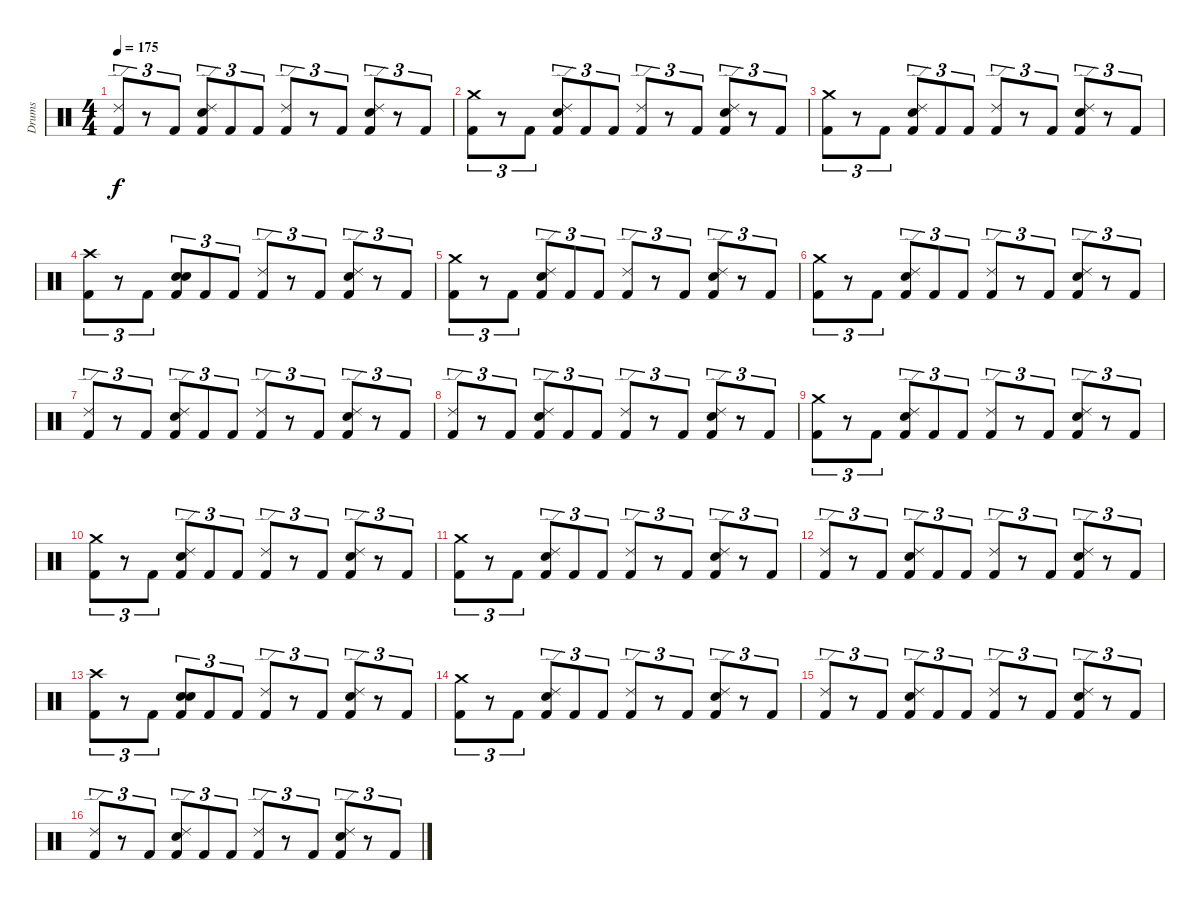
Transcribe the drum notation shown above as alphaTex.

\track ("Drums" "Drums") {instrument percussion}
\staff {score}
\articulation defaults
\ts (4 4)
\tempo 175
\clef neutral
\ks c
("Ride (edge) 2" "Kick (hit) 2").8{tu (3 2) dy f} r.8{tu (3 2)} "Kick (hit) 2".8{tu (3 2)} ("Ride (edge) 2" "Electric Snare (hit)" "Kick (hit) 2").8{tu (3 2)} "Kick (hit) 2".8{tu (3 2)} "Kick (hit) 2".8{tu (3 2)} ("Ride (edge) 2" "Kick (hit) 2").8{tu (3 2)} r.8{tu (3 2)} "Kick (hit) 2".8{tu (3 2)} ("Electric Snare (hit)" "Kick (hit) 2" "Ride (edge) 2").8{tu (3 2)} r.8{tu (3 2)} "Kick (hit) 2".8{tu (3 2)} |
("Crash medium (hit)" "Kick (hit) 2").8{tu (3 2)} r.8{tu (3 2)} "Kick (hit) 2".8{tu (3 2)} ("Ride (edge) 2" "Electric Snare (hit)" "Kick (hit) 2").8{tu (3 2)} "Kick (hit) 2".8{tu (3 2)} "Kick (hit) 2".8{tu (3 2)} ("Ride (edge) 2" "Kick (hit) 2").8{tu (3 2)} r.8{tu (3 2)} "Kick (hit) 2".8{tu (3 2)} ("Electric Snare (hit)" "Kick (hit) 2" "Ride (edge) 2").8{tu (3 2)} r.8{tu (3 2)} "Kick (hit) 2".8{tu (3 2)} |
("Crash medium (hit)" "Kick (hit) 2").8{tu (3 2)} r.8{tu (3 2)} "Kick (hit) 2".8{tu (3 2)} ("Ride (edge) 2" "Electric Snare (hit)" "Kick (hit) 2").8{tu (3 2)} "Kick (hit) 2".8{tu (3 2)} "Kick (hit) 2".8{tu (3 2)} ("Ride (edge) 2" "Kick (hit) 2").8{tu (3 2)} r.8{tu (3 2)} "Kick (hit) 2".8{tu (3 2)} ("Electric Snare (hit)" "Kick (hit) 2" "Ride (edge) 2").8{tu (3 2)} r.8{tu (3 2)} "Kick (hit) 2".8{tu (3 2)} |
("Crash high (hit)" "Kick (hit) 2").8{tu (3 2)} r.8{tu (3 2)} "Kick (hit) 2".8{tu (3 2)} ("Electric Snare (hit)" "Electric Snare (hit)" "Kick (hit) 2").8{tu (3 2)} "Kick (hit) 2".8{tu (3 2)} "Kick (hit) 2".8{tu (3 2)} ("Ride (edge) 2" "Kick (hit) 2").8{tu (3 2)} r.8{tu (3 2)} "Kick (hit) 2".8{tu (3 2)} ("Electric Snare (hit)" "Kick (hit) 2" "Ride (edge) 2").8{tu (3 2)} r.8{tu (3 2)} "Kick (hit) 2".8{tu (3 2)} |
("Crash medium (hit)" "Kick (hit) 2").8{tu (3 2)} r.8{tu (3 2)} "Kick (hit) 2".8{tu (3 2)} ("Ride (edge) 2" "Electric Snare (hit)" "Kick (hit) 2").8{tu (3 2)} "Kick (hit) 2".8{tu (3 2)} "Kick (hit) 2".8{tu (3 2)} ("Ride (edge) 2" "Kick (hit) 2").8{tu (3 2)} r.8{tu (3 2)} "Kick (hit) 2".8{tu (3 2)} ("Electric Snare (hit)" "Kick (hit) 2" "Ride (edge) 2").8{tu (3 2)} r.8{tu (3 2)} "Kick (hit) 2".8{tu (3 2)} |
("Crash medium (hit)" "Kick (hit) 2").8{tu (3 2)} r.8{tu (3 2)} "Kick (hit) 2".8{tu (3 2)} ("Ride (edge) 2" "Electric Snare (hit)" "Kick (hit) 2").8{tu (3 2)} "Kick (hit) 2".8{tu (3 2)} "Kick (hit) 2".8{tu (3 2)} ("Ride (edge) 2" "Kick (hit) 2").8{tu (3 2)} r.8{tu (3 2)} "Kick (hit) 2".8{tu (3 2)} ("Electric Snare (hit)" "Kick (hit) 2" "Ride (edge) 2").8{tu (3 2)} r.8{tu (3 2)} "Kick (hit) 2".8{tu (3 2)} |
("Ride (edge) 2" "Kick (hit) 2").8{tu (3 2)} r.8{tu (3 2)} "Kick (hit) 2".8{tu (3 2)} ("Ride (edge) 2" "Electric Snare (hit)" "Kick (hit) 2").8{tu (3 2)} "Kick (hit) 2".8{tu (3 2)} "Kick (hit) 2".8{tu (3 2)} ("Ride (edge) 2" "Kick (hit) 2").8{tu (3 2)} r.8{tu (3 2)} "Kick (hit) 2".8{tu (3 2)} ("Electric Snare (hit)" "Kick (hit) 2" "Ride (edge) 2").8{tu (3 2)} r.8{tu (3 2)} "Kick (hit) 2".8{tu (3 2)} |
("Ride (edge) 2" "Kick (hit) 2").8{tu (3 2)} r.8{tu (3 2)} "Kick (hit) 2".8{tu (3 2)} ("Ride (edge) 2" "Electric Snare (hit)" "Kick (hit) 2").8{tu (3 2)} "Kick (hit) 2".8{tu (3 2)} "Kick (hit) 2".8{tu (3 2)} ("Ride (edge) 2" "Kick (hit) 2").8{tu (3 2)} r.8{tu (3 2)} "Kick (hit) 2".8{tu (3 2)} ("Electric Snare (hit)" "Kick (hit) 2" "Ride (edge) 2").8{tu (3 2)} r.8{tu (3 2)} "Kick (hit) 2".8{tu (3 2)} |
("Crash medium (hit)" "Kick (hit) 2").8{tu (3 2)} r.8{tu (3 2)} "Kick (hit) 2".8{tu (3 2)} ("Ride (edge) 2" "Electric Snare (hit)" "Kick (hit) 2").8{tu (3 2)} "Kick (hit) 2".8{tu (3 2)} "Kick (hit) 2".8{tu (3 2)} ("Ride (edge) 2" "Kick (hit) 2").8{tu (3 2)} r.8{tu (3 2)} "Kick (hit) 2".8{tu (3 2)} ("Electric Snare (hit)" "Kick (hit) 2" "Ride (edge) 2").8{tu (3 2)} r.8{tu (3 2)} "Kick (hit) 2".8{tu (3 2)} |
("Crash medium (hit)" "Kick (hit) 2").8{tu (3 2)} r.8{tu (3 2)} "Kick (hit) 2".8{tu (3 2)} ("Ride (edge) 2" "Electric Snare (hit)" "Kick (hit) 2").8{tu (3 2)} "Kick (hit) 2".8{tu (3 2)} "Kick (hit) 2".8{tu (3 2)} ("Ride (edge) 2" "Kick (hit) 2").8{tu (3 2)} r.8{tu (3 2)} "Kick (hit) 2".8{tu (3 2)} ("Electric Snare (hit)" "Kick (hit) 2" "Ride (edge) 2").8{tu (3 2)} r.8{tu (3 2)} "Kick (hit) 2".8{tu (3 2)} |
("Crash medium (hit)" "Kick (hit) 2").8{tu (3 2)} r.8{tu (3 2)} "Kick (hit) 2".8{tu (3 2)} ("Ride (edge) 2" "Electric Snare (hit)" "Kick (hit) 2").8{tu (3 2)} "Kick (hit) 2".8{tu (3 2)} "Kick (hit) 2".8{tu (3 2)} ("Ride (edge) 2" "Kick (hit) 2").8{tu (3 2)} r.8{tu (3 2)} "Kick (hit) 2".8{tu (3 2)} ("Electric Snare (hit)" "Kick (hit) 2" "Ride (edge) 2").8{tu (3 2)} r.8{tu (3 2)} "Kick (hit) 2".8{tu (3 2)} |
("Ride (edge) 2" "Kick (hit) 2").8{tu (3 2)} r.8{tu (3 2)} "Kick (hit) 2".8{tu (3 2)} ("Ride (edge) 2" "Electric Snare (hit)" "Kick (hit) 2").8{tu (3 2)} "Kick (hit) 2".8{tu (3 2)} "Kick (hit) 2".8{tu (3 2)} ("Ride (edge) 2" "Kick (hit) 2").8{tu (3 2)} r.8{tu (3 2)} "Kick (hit) 2".8{tu (3 2)} ("Electric Snare (hit)" "Kick (hit) 2" "Ride (edge) 2").8{tu (3 2)} r.8{tu (3 2)} "Kick (hit) 2".8{tu (3 2)} |
("Crash high (hit)" "Kick (hit) 2").8{tu (3 2)} r.8{tu (3 2)} "Kick (hit) 2".8{tu (3 2)} ("Electric Snare (hit)" "Electric Snare (hit)" "Kick (hit) 2").8{tu (3 2)} "Kick (hit) 2".8{tu (3 2)} "Kick (hit) 2".8{tu (3 2)} ("Ride (edge) 2" "Kick (hit) 2").8{tu (3 2)} r.8{tu (3 2)} "Kick (hit) 2".8{tu (3 2)} ("Electric Snare (hit)" "Kick (hit) 2" "Ride (edge) 2").8{tu (3 2)} r.8{tu (3 2)} "Kick (hit) 2".8{tu (3 2)} |
("Crash medium (hit)" "Kick (hit) 2").8{tu (3 2)} r.8{tu (3 2)} "Kick (hit) 2".8{tu (3 2)} ("Ride (edge) 2" "Electric Snare (hit)" "Kick (hit) 2").8{tu (3 2)} "Kick (hit) 2".8{tu (3 2)} "Kick (hit) 2".8{tu (3 2)} ("Ride (edge) 2" "Kick (hit) 2").8{tu (3 2)} r.8{tu (3 2)} "Kick (hit) 2".8{tu (3 2)} ("Electric Snare (hit)" "Kick (hit) 2" "Ride (edge) 2").8{tu (3 2)} r.8{tu (3 2)} "Kick (hit) 2".8{tu (3 2)} |
("Ride (edge) 2" "Kick (hit) 2").8{tu (3 2)} r.8{tu (3 2)} "Kick (hit) 2".8{tu (3 2)} ("Ride (edge) 2" "Electric Snare (hit)" "Kick (hit) 2").8{tu (3 2)} "Kick (hit) 2".8{tu (3 2)} "Kick (hit) 2".8{tu (3 2)} ("Ride (edge) 2" "Kick (hit) 2").8{tu (3 2)} r.8{tu (3 2)} "Kick (hit) 2".8{tu (3 2)} ("Electric Snare (hit)" "Kick (hit) 2" "Ride (edge) 2").8{tu (3 2)} r.8{tu (3 2)} "Kick (hit) 2".8{tu (3 2)} |
("Ride (edge) 2" "Kick (hit) 2").8{tu (3 2)} r.8{tu (3 2)} "Kick (hit) 2".8{tu (3 2)} ("Ride (edge) 2" "Electric Snare (hit)" "Kick (hit) 2").8{tu (3 2)} "Kick (hit) 2".8{tu (3 2)} "Kick (hit) 2".8{tu (3 2)} ("Ride (edge) 2" "Kick (hit) 2").8{tu (3 2)} r.8{tu (3 2)} "Kick (hit) 2".8{tu (3 2)} ("Electric Snare (hit)" "Kick (hit) 2" "Ride (edge) 2").8{tu (3 2)} r.8{tu (3 2)} "Kick (hit) 2".8{tu (3 2)}
